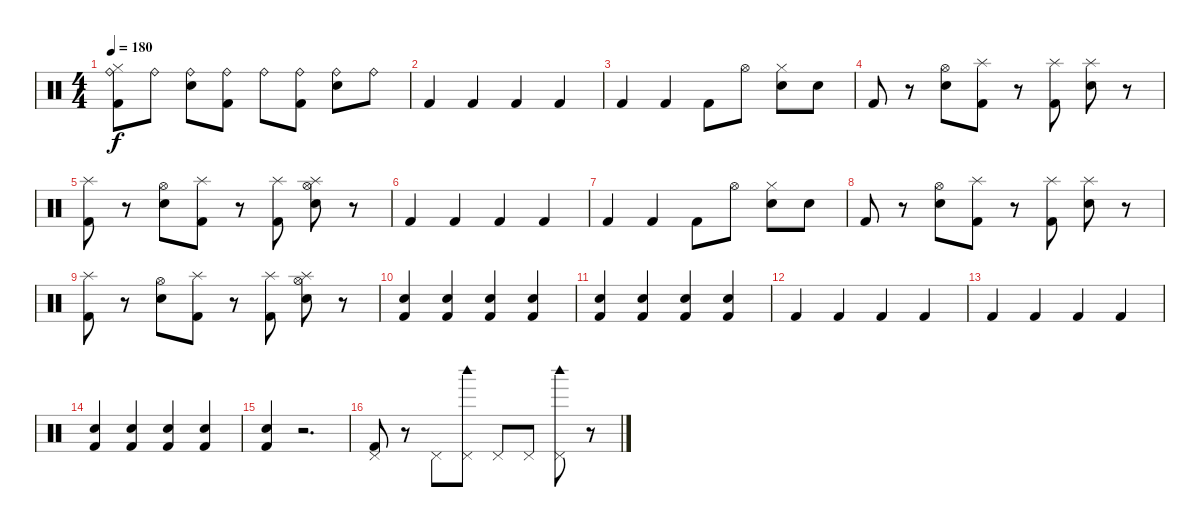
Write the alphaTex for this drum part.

\track "" {instrument percussion}
\staff {score}
\articulation defaults
\ts (4 4)
\tempo 180
\clef neutral
\ks c
("Ride (bell)" "Hi-Hat (closed)" "Kick (hit) 2").8{dy f} "Ride (bell)".8 ("Ride (bell)" "Electric Snare (hit)").8 ("Ride (bell)" "Kick (hit) 2").8 "Ride (bell)".8 ("Ride (bell)" "Kick (hit) 2").8 ("Ride (bell)" "Electric Snare (hit)").8 "Ride (bell)".8 |
"Kick (hit) 2".4 "Kick (hit) 2".4 "Kick (hit) 2".4 "Kick (hit) 2".4 |
"Kick (hit) 2".4 "Kick (hit) 2".4 "Kick (hit) 2".8 "Hi-Hat (open)".8 ("Hi-Hat (closed)" "Electric Snare (hit)").8 "Electric Snare (hit)".8 |
"Kick (hit) 2".8 r.8 ("Hi-Hat (open)" "Electric Snare (hit)").8 ("Splash (hit)" "Kick (hit) 2").8 r.8 ("Splash (hit)" "Kick (hit) 2").8 ("Splash (hit)" "Electric Snare (hit)").8 r.8 |
("Splash (hit)" "Kick (hit) 2").8 r.8 ("Hi-Hat (open)" "Electric Snare (hit)").8 ("Splash (hit)" "Kick (hit) 2").8 r.8 ("Splash (hit)" "Kick (hit) 2").8 ("Hi-Hat (open)" "Splash (hit)" "Electric Snare (hit)").8 r.8 |
"Kick (hit) 2".4 "Kick (hit) 2".4 "Kick (hit) 2".4 "Kick (hit) 2".4 |
"Kick (hit) 2".4 "Kick (hit) 2".4 "Kick (hit) 2".8 "Hi-Hat (open)".8 ("Hi-Hat (closed)" "Electric Snare (hit)").8 "Electric Snare (hit)".8 |
"Kick (hit) 2".8 r.8 ("Hi-Hat (open)" "Electric Snare (hit)").8 ("Splash (hit)" "Kick (hit) 2").8 r.8 ("Splash (hit)" "Kick (hit) 2").8 ("Splash (hit)" "Electric Snare (hit)").8 r.8 |
("Splash (hit)" "Kick (hit) 2").8 r.8 ("Hi-Hat (open)" "Electric Snare (hit)").8 ("Splash (hit)" "Kick (hit) 2").8 r.8 ("Splash (hit)" "Kick (hit) 2").8 ("Hi-Hat (open)" "Splash (hit)" "Electric Snare (hit)").8 r.8 |
("Kick (hit) 2" "Electric Snare (hit)").4 ("Kick (hit) 2" "Electric Snare (hit)").4 ("Kick (hit) 2" "Electric Snare (hit)").4 ("Kick (hit) 2" "Electric Snare (hit)").4 |
("Kick (hit) 2" "Electric Snare (hit)").4 ("Kick (hit) 2" "Electric Snare (hit)").4 ("Kick (hit) 2" "Electric Snare (hit)").4 ("Kick (hit) 2" "Electric Snare (hit)").4 |
"Kick (hit) 2".4 "Kick (hit) 2".4 "Kick (hit) 2".4 "Kick (hit) 2".4 |
"Kick (hit) 2".4 "Kick (hit) 2".4 "Kick (hit) 2".4 "Kick (hit) 2".4 |
("Kick (hit) 2" "Electric Snare (hit)").4 ("Kick (hit) 2" "Electric Snare (hit)").4 ("Kick (hit) 2" "Electric Snare (hit)").4 ("Kick (hit) 2" "Electric Snare (hit)").4 |
("Kick (hit) 2" "Electric Snare (hit)").4 r.2{d} |
("Pedal Hi-Hat (hit)" "Kick (hit) 2").8 r.8 "Pedal Hi-Hat (hit)".8 ("Pedal Hi-Hat (hit)" "Woodblock high (hit)").8 "Pedal Hi-Hat (hit)".8 "Pedal Hi-Hat (hit)".8 ("Pedal Hi-Hat (hit)" "Woodblock high (hit)").8 r.8
